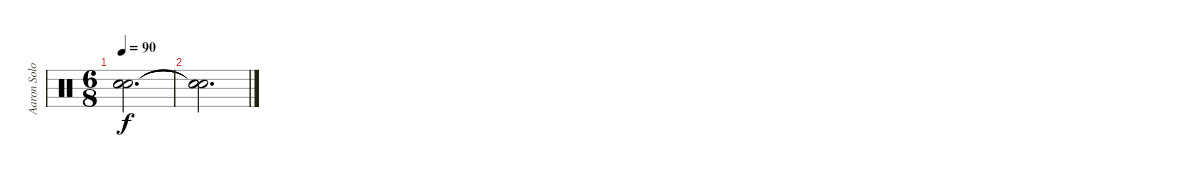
\track ("Aaron Solowoniuk" "Aaron Solo") {instrument percussion}
\staff {score}
\articulation defaults
\ts (6 8)
\tempo 90
\clef neutral
\ks c
("Snare (hit)"{t} "Snare (hit)"{t} "Snare (hit)"{t}).2{d dy f} |
("Snare (hit)"{t} "Snare (hit)"{t} "Snare (hit)"{t}).2{d}
